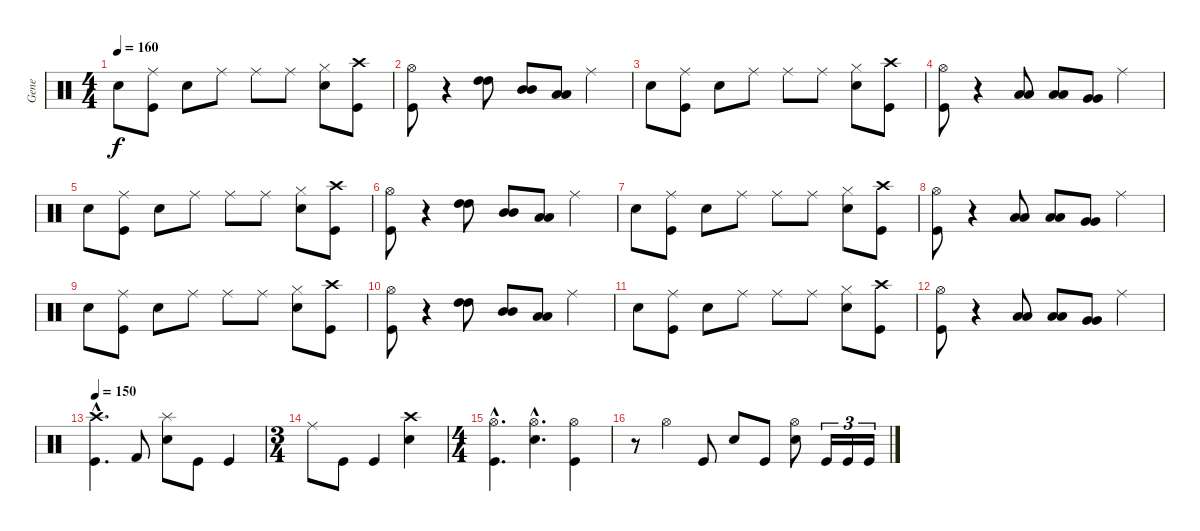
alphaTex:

\track ("Gene" "Gene") {instrument percussion}
\staff {score}
\articulation defaults
\ts (4 4)
\tempo 160
\clef neutral
\ks c "Snare (hit) 2".8{dy f}
("Kick (hit)" "Ride (middle)").8 "Snare (hit) 2".8 "Ride (middle)".8 "Ride (middle)".8 "Ride (middle)".8 ("Snare (hit) 2" "Hi-Hat (closed)").8 ("Kick (hit)" "Crash high (hit)").8 |
("Kick (hit)" "Hi-Hat (open)").8 r.4 ("High Tom (hit)" "High Tom (hit)").8 ("Mid Tom (hit)" "Mid Tom (hit)").8 ("Low Tom (hit)" "Low Tom (hit)").8 "Ride (middle)".4 |
"Snare (hit) 2".8 ("Kick (hit)" "Ride (middle)").8 "Snare (hit) 2".8 "Ride (middle)".8 "Ride (middle)".8 "Ride (middle)".8 ("Snare (hit) 2" "Hi-Hat (closed)").8 ("Kick (hit)" "Crash high (hit)").8 |
("Kick (hit)" "Hi-Hat (open)").8 r.4 ("Low Tom (hit)" "Low Tom (hit)").8 ("Low Floor Tom (hit)" "Low Floor Tom (hit)").8 ("Very Low Tom (hit)" "Very Low Tom (hit)").8 "Ride (middle)".4 |
"Snare (hit) 2".8 ("Kick (hit)" "Ride (middle)").8 "Snare (hit) 2".8 "Ride (middle)".8 "Ride (middle)".8 "Ride (middle)".8 ("Snare (hit) 2" "Hi-Hat (closed)").8 ("Kick (hit)" "Crash high (hit)").8 |
("Kick (hit)" "Hi-Hat (open)").8 r.4 ("High Tom (hit)" "High Tom (hit)").8 ("Mid Tom (hit)" "Mid Tom (hit)").8 ("Low Tom (hit)" "Low Tom (hit)").8 "Ride (middle)".4 |
"Snare (hit) 2".8 ("Kick (hit)" "Ride (middle)").8 "Snare (hit) 2".8 "Ride (middle)".8 "Ride (middle)".8 "Ride (middle)".8 ("Snare (hit) 2" "Hi-Hat (closed)").8 ("Kick (hit)" "Crash high (hit)").8 |
("Kick (hit)" "Hi-Hat (open)").8 r.4 ("Low Tom (hit)" "Low Tom (hit)").8 ("Low Floor Tom (hit)" "Low Floor Tom (hit)").8 ("Very Low Tom (hit)" "Very Low Tom (hit)").8 "Ride (middle)".4 |
"Snare (hit) 2".8 ("Kick (hit)" "Ride (middle)").8 "Snare (hit) 2".8 "Ride (middle)".8 "Ride (middle)".8 "Ride (middle)".8 ("Snare (hit) 2" "Hi-Hat (closed)").8 ("Kick (hit)" "Crash high (hit)").8 |
("Kick (hit)" "Hi-Hat (open)").8 r.4 ("High Tom (hit)" "High Tom (hit)").8 ("Mid Tom (hit)" "Mid Tom (hit)").8 ("Low Tom (hit)" "Low Tom (hit)").8 "Ride (middle)".4 |
"Snare (hit) 2".8 ("Kick (hit)" "Ride (middle)").8 "Snare (hit) 2".8 "Ride (middle)".8 "Ride (middle)".8 "Ride (middle)".8 ("Snare (hit) 2" "Hi-Hat (closed)").8 ("Kick (hit)" "Crash high (hit)").8 |
("Kick (hit)" "Hi-Hat (open)").8 r.4 ("Low Tom (hit)" "Low Tom (hit)").8 ("Low Floor Tom (hit)" "Low Floor Tom (hit)").8 ("Very Low Tom (hit)" "Very Low Tom (hit)").8 "Ride (middle)".4 |
\tempo 150
("Kick (hit)"{hac} "Crash high (hit)"{hac}).4{d} "Kick (hit) 2".8 ("Snare (hit) 2" "Splash (hit)").8 "Kick (hit)".8 "Kick (hit)".4 |
\ts (3 4)
"Ride (middle)".8 "Kick (hit)".8 "Kick (hit)".4 ("Snare (hit) 2" "Crash high (hit)").4 |
\ts (4 4)
("Kick (hit)"{hac} "Hi-Hat (open)"{hac}).4{d} ("Snare (hit) 2"{hac} "Hi-Hat (open)"{hac}).4{d} ("Kick (hit)" "Hi-Hat (open)").4 |
r.8 "Hi-Hat (open)".4 "Kick (hit)".8 "Snare (hit) 2".8 "Kick (hit)".8 ("Snare (hit) 2" "Hi-Hat (open)").8 "Kick (hit)".16{tu (3 2)} "Kick (hit)".16{tu (3 2)} "Kick (hit)".16{tu (3 2)}
